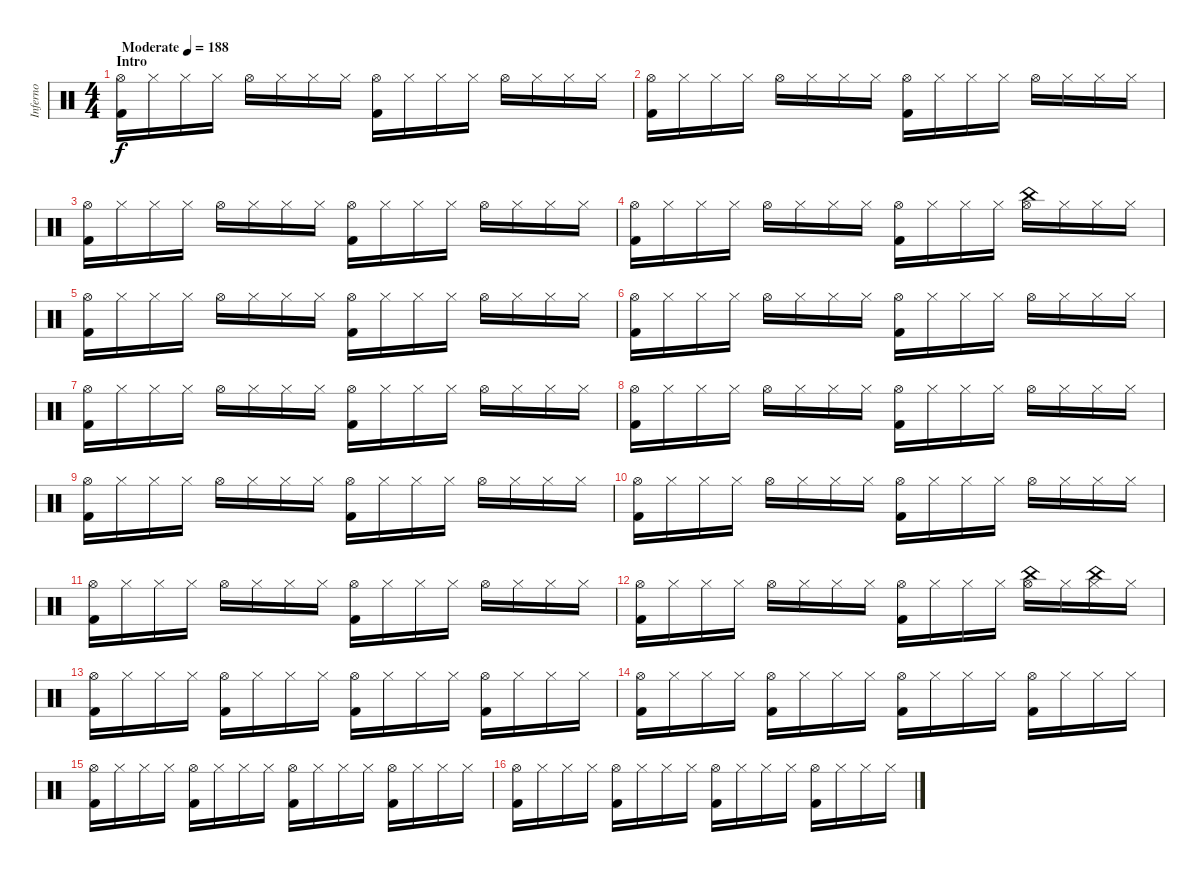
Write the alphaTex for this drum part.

\track ("Inferno" "Inferno") {instrument percussion}
\staff {score}
\articulation defaults
\ts (4 4)
\section ("" "Intro")
\tempo (188 "Moderate")
\clef neutral
\ks c
("Hi-Hat (open)" "Kick (hit) 2").16{dy f} "Hi-Hat (closed)".16 "Hi-Hat (closed)".16 "Hi-Hat (closed)".16 "Hi-Hat (open)".16 "Hi-Hat (closed)".16 "Hi-Hat (closed)".16 "Hi-Hat (closed)".16 ("Hi-Hat (open)" "Kick (hit) 2").16 "Hi-Hat (closed)".16 "Hi-Hat (closed)".16 "Hi-Hat (closed)".16 "Hi-Hat (open)".16 "Hi-Hat (closed)".16 "Hi-Hat (closed)".16 "Hi-Hat (closed)".16 |
("Hi-Hat (open)" "Kick (hit) 2").16 "Hi-Hat (closed)".16 "Hi-Hat (closed)".16 "Hi-Hat (closed)".16 "Hi-Hat (open)".16 "Hi-Hat (closed)".16 "Hi-Hat (closed)".16 "Hi-Hat (closed)".16 ("Hi-Hat (open)" "Kick (hit) 2").16 "Hi-Hat (closed)".16 "Hi-Hat (closed)".16 "Hi-Hat (closed)".16 "Hi-Hat (open)".16 "Hi-Hat (closed)".16 "Hi-Hat (closed)".16 "Hi-Hat (closed)".16 |
("Hi-Hat (open)" "Kick (hit) 2").16 "Hi-Hat (closed)".16 "Hi-Hat (closed)".16 "Hi-Hat (closed)".16 "Hi-Hat (open)".16 "Hi-Hat (closed)".16 "Hi-Hat (closed)".16 "Hi-Hat (closed)".16 ("Hi-Hat (open)" "Kick (hit) 2").16 "Hi-Hat (closed)".16 "Hi-Hat (closed)".16 "Hi-Hat (closed)".16 "Hi-Hat (open)".16 "Hi-Hat (closed)".16 "Hi-Hat (closed)".16 "Hi-Hat (closed)".16 |
("Hi-Hat (open)" "Kick (hit) 2").16 "Hi-Hat (closed)".16 "Hi-Hat (closed)".16 "Hi-Hat (closed)".16 "Hi-Hat (open)".16 "Hi-Hat (closed)".16 "Hi-Hat (closed)".16 "Hi-Hat (closed)".16 ("Hi-Hat (open)" "Kick (hit) 2").16 "Hi-Hat (closed)".16 "Hi-Hat (closed)".16 "Hi-Hat (closed)".16 ("China (hit)" "Hi-Hat (open)").16 "Hi-Hat (closed)".16 "Hi-Hat (closed)".16 "Hi-Hat (closed)".16 |
("Hi-Hat (open)" "Kick (hit) 2").16 "Hi-Hat (closed)".16 "Hi-Hat (closed)".16 "Hi-Hat (closed)".16 "Hi-Hat (open)".16 "Hi-Hat (closed)".16 "Hi-Hat (closed)".16 "Hi-Hat (closed)".16 ("Hi-Hat (open)" "Kick (hit) 2").16 "Hi-Hat (closed)".16 "Hi-Hat (closed)".16 "Hi-Hat (closed)".16 "Hi-Hat (open)".16 "Hi-Hat (closed)".16 "Hi-Hat (closed)".16 "Hi-Hat (closed)".16 |
("Hi-Hat (open)" "Kick (hit) 2").16 "Hi-Hat (closed)".16 "Hi-Hat (closed)".16 "Hi-Hat (closed)".16 "Hi-Hat (open)".16 "Hi-Hat (closed)".16 "Hi-Hat (closed)".16 "Hi-Hat (closed)".16 ("Hi-Hat (open)" "Kick (hit) 2").16 "Hi-Hat (closed)".16 "Hi-Hat (closed)".16 "Hi-Hat (closed)".16 "Hi-Hat (open)".16 "Hi-Hat (closed)".16 "Hi-Hat (closed)".16 "Hi-Hat (closed)".16 |
("Hi-Hat (open)" "Kick (hit) 2").16 "Hi-Hat (closed)".16 "Hi-Hat (closed)".16 "Hi-Hat (closed)".16 "Hi-Hat (open)".16 "Hi-Hat (closed)".16 "Hi-Hat (closed)".16 "Hi-Hat (closed)".16 ("Hi-Hat (open)" "Kick (hit) 2").16 "Hi-Hat (closed)".16 "Hi-Hat (closed)".16 "Hi-Hat (closed)".16 "Hi-Hat (open)".16 "Hi-Hat (closed)".16 "Hi-Hat (closed)".16 "Hi-Hat (closed)".16 |
("Hi-Hat (open)" "Kick (hit) 2").16 "Hi-Hat (closed)".16 "Hi-Hat (closed)".16 "Hi-Hat (closed)".16 "Hi-Hat (open)".16 "Hi-Hat (closed)".16 "Hi-Hat (closed)".16 "Hi-Hat (closed)".16 ("Hi-Hat (open)" "Kick (hit) 2").16 "Hi-Hat (closed)".16 "Hi-Hat (closed)".16 "Hi-Hat (closed)".16 "Hi-Hat (open)".16 "Hi-Hat (closed)".16 "Hi-Hat (closed)".16 "Hi-Hat (closed)".16 |
("Hi-Hat (open)" "Kick (hit) 2").16 "Hi-Hat (closed)".16 "Hi-Hat (closed)".16 "Hi-Hat (closed)".16 "Hi-Hat (open)".16 "Hi-Hat (closed)".16 "Hi-Hat (closed)".16 "Hi-Hat (closed)".16 ("Hi-Hat (open)" "Kick (hit) 2").16 "Hi-Hat (closed)".16 "Hi-Hat (closed)".16 "Hi-Hat (closed)".16 "Hi-Hat (open)".16 "Hi-Hat (closed)".16 "Hi-Hat (closed)".16 "Hi-Hat (closed)".16 |
("Hi-Hat (open)" "Kick (hit) 2").16 "Hi-Hat (closed)".16 "Hi-Hat (closed)".16 "Hi-Hat (closed)".16 "Hi-Hat (open)".16 "Hi-Hat (closed)".16 "Hi-Hat (closed)".16 "Hi-Hat (closed)".16 ("Hi-Hat (open)" "Kick (hit) 2").16 "Hi-Hat (closed)".16 "Hi-Hat (closed)".16 "Hi-Hat (closed)".16 "Hi-Hat (open)".16 "Hi-Hat (closed)".16 "Hi-Hat (closed)".16 "Hi-Hat (closed)".16 |
("Hi-Hat (open)" "Kick (hit) 2").16 "Hi-Hat (closed)".16 "Hi-Hat (closed)".16 "Hi-Hat (closed)".16 "Hi-Hat (open)".16 "Hi-Hat (closed)".16 "Hi-Hat (closed)".16 "Hi-Hat (closed)".16 ("Hi-Hat (open)" "Kick (hit) 2").16 "Hi-Hat (closed)".16 "Hi-Hat (closed)".16 "Hi-Hat (closed)".16 "Hi-Hat (open)".16 "Hi-Hat (closed)".16 "Hi-Hat (closed)".16 "Hi-Hat (closed)".16 |
("Hi-Hat (open)" "Kick (hit) 2").16 "Hi-Hat (closed)".16 "Hi-Hat (closed)".16 "Hi-Hat (closed)".16 "Hi-Hat (open)".16 "Hi-Hat (closed)".16 "Hi-Hat (closed)".16 "Hi-Hat (closed)".16 ("Hi-Hat (open)" "Kick (hit) 2").16 "Hi-Hat (closed)".16 "Hi-Hat (closed)".16 "Hi-Hat (closed)".16 ("China (hit)" "Hi-Hat (open)").16 "Hi-Hat (closed)".16 ("China (hit)" "Hi-Hat (closed)").16 "Hi-Hat (closed)".16 |
("Hi-Hat (open)" "Kick (hit) 2").16 "Hi-Hat (closed)".16 "Hi-Hat (closed)".16 "Hi-Hat (closed)".16 ("Hi-Hat (open)" "Kick (hit) 2").16 "Hi-Hat (closed)".16 "Hi-Hat (closed)".16 "Hi-Hat (closed)".16 ("Hi-Hat (open)" "Kick (hit) 2").16 "Hi-Hat (closed)".16 "Hi-Hat (closed)".16 "Hi-Hat (closed)".16 ("Hi-Hat (open)" "Kick (hit) 2").16 "Hi-Hat (closed)".16 "Hi-Hat (closed)".16 "Hi-Hat (closed)".16 |
("Hi-Hat (open)" "Kick (hit) 2").16 "Hi-Hat (closed)".16 "Hi-Hat (closed)".16 "Hi-Hat (closed)".16 ("Hi-Hat (open)" "Kick (hit) 2").16 "Hi-Hat (closed)".16 "Hi-Hat (closed)".16 "Hi-Hat (closed)".16 ("Hi-Hat (open)" "Kick (hit) 2").16 "Hi-Hat (closed)".16 "Hi-Hat (closed)".16 "Hi-Hat (closed)".16 ("Hi-Hat (open)" "Kick (hit) 2").16 "Hi-Hat (closed)".16 "Hi-Hat (closed)".16 "Hi-Hat (closed)".16 |
("Hi-Hat (open)" "Kick (hit) 2").16 "Hi-Hat (closed)".16 "Hi-Hat (closed)".16 "Hi-Hat (closed)".16 ("Hi-Hat (open)" "Kick (hit) 2").16 "Hi-Hat (closed)".16 "Hi-Hat (closed)".16 "Hi-Hat (closed)".16 ("Hi-Hat (open)" "Kick (hit) 2").16 "Hi-Hat (closed)".16 "Hi-Hat (closed)".16 "Hi-Hat (closed)".16 ("Hi-Hat (open)" "Kick (hit) 2").16 "Hi-Hat (closed)".16 "Hi-Hat (closed)".16 "Hi-Hat (closed)".16 |
("Hi-Hat (open)" "Kick (hit) 2").16 "Hi-Hat (closed)".16 "Hi-Hat (closed)".16 "Hi-Hat (closed)".16 ("Hi-Hat (open)" "Kick (hit) 2").16 "Hi-Hat (closed)".16 "Hi-Hat (closed)".16 "Hi-Hat (closed)".16 ("Hi-Hat (open)" "Kick (hit) 2").16 "Hi-Hat (closed)".16 "Hi-Hat (closed)".16 "Hi-Hat (closed)".16 ("Hi-Hat (open)" "Kick (hit) 2").16 "Hi-Hat (closed)".16 "Hi-Hat (closed)".16 "Hi-Hat (closed)".16
